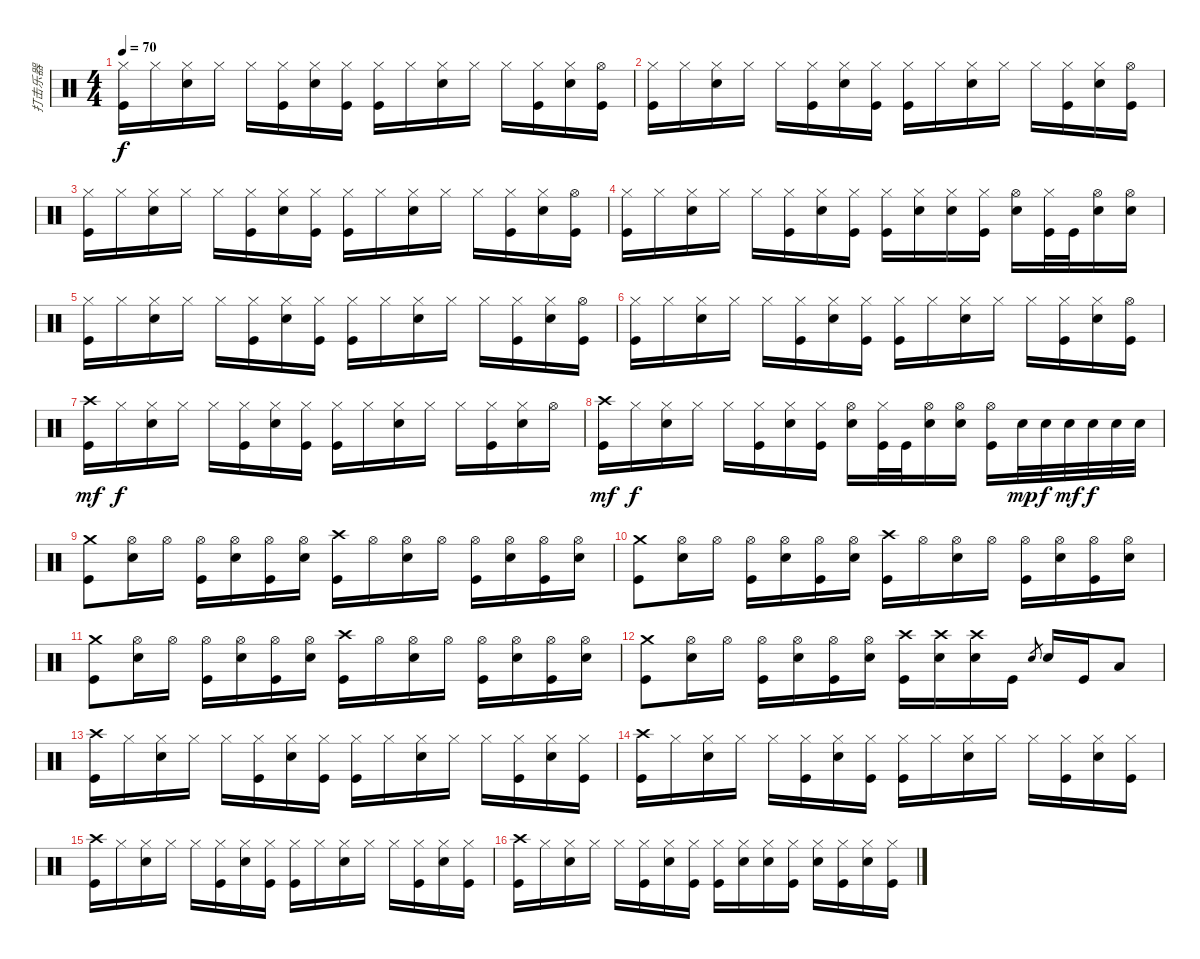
\track ("打击乐器" "打击乐器") {instrument percussion}
\staff {score}
\articulation defaults
\ts (4 4)
\tempo 70
\clef neutral
\ks c
("Hi-Hat (closed)" "Kick (hit)").16{dy f} "Hi-Hat (closed)".16 ("Hi-Hat (closed)" "Electric Snare (hit)").16 "Hi-Hat (closed)".16 "Hi-Hat (closed)".16 ("Hi-Hat (closed)" "Kick (hit)").16 ("Hi-Hat (closed)" "Electric Snare (hit)").16 ("Hi-Hat (closed)" "Kick (hit)").16 ("Hi-Hat (closed)" "Kick (hit)").16 "Hi-Hat (closed)".16 ("Hi-Hat (closed)" "Electric Snare (hit)").16 "Hi-Hat (closed)".16 "Hi-Hat (closed)".16 ("Hi-Hat (closed)" "Kick (hit)").16 ("Hi-Hat (closed)" "Electric Snare (hit)").16 ("Hi-Hat (open)" "Kick (hit)").16 |
("Hi-Hat (closed)" "Kick (hit)").16 "Hi-Hat (closed)".16 ("Hi-Hat (closed)" "Electric Snare (hit)").16 "Hi-Hat (closed)".16 "Hi-Hat (closed)".16 ("Hi-Hat (closed)" "Kick (hit)").16 ("Hi-Hat (closed)" "Electric Snare (hit)").16 ("Hi-Hat (closed)" "Kick (hit)").16 ("Hi-Hat (closed)" "Kick (hit)").16 "Hi-Hat (closed)".16 ("Hi-Hat (closed)" "Electric Snare (hit)").16 "Hi-Hat (closed)".16 "Hi-Hat (closed)".16 ("Hi-Hat (closed)" "Kick (hit)").16 ("Hi-Hat (closed)" "Electric Snare (hit)").16 ("Hi-Hat (open)" "Kick (hit)").16 |
("Hi-Hat (closed)" "Kick (hit)").16 "Hi-Hat (closed)".16 ("Hi-Hat (closed)" "Electric Snare (hit)").16 "Hi-Hat (closed)".16 "Hi-Hat (closed)".16 ("Hi-Hat (closed)" "Kick (hit)").16 ("Hi-Hat (closed)" "Electric Snare (hit)").16 ("Hi-Hat (closed)" "Kick (hit)").16 ("Hi-Hat (closed)" "Kick (hit)").16 "Hi-Hat (closed)".16 ("Hi-Hat (closed)" "Electric Snare (hit)").16 "Hi-Hat (closed)".16 "Hi-Hat (closed)".16 ("Hi-Hat (closed)" "Kick (hit)").16 ("Hi-Hat (closed)" "Electric Snare (hit)").16 ("Hi-Hat (open)" "Kick (hit)").16 |
("Hi-Hat (closed)" "Kick (hit)").16 "Hi-Hat (closed)".16 ("Hi-Hat (closed)" "Electric Snare (hit)").16 "Hi-Hat (closed)".16 "Hi-Hat (closed)".16 ("Hi-Hat (closed)" "Kick (hit)").16 ("Hi-Hat (closed)" "Electric Snare (hit)").16 ("Hi-Hat (closed)" "Kick (hit)").16 ("Hi-Hat (closed)" "Kick (hit)").16 ("Hi-Hat (closed)" "Electric Snare (hit)").16 ("Hi-Hat (closed)" "Electric Snare (hit)").16 ("Hi-Hat (closed)" "Kick (hit)").16 ("Hi-Hat (open)" "Electric Snare (hit)").16 ("Hi-Hat (closed)" "Kick (hit)").32 "Kick (hit)".32 ("Hi-Hat (open)" "Electric Snare (hit)").16 ("Hi-Hat (open)" "Electric Snare (hit)").16 |
("Hi-Hat (closed)" "Kick (hit)").16 "Hi-Hat (closed)".16 ("Hi-Hat (closed)" "Electric Snare (hit)").16 "Hi-Hat (closed)".16 "Hi-Hat (closed)".16 ("Hi-Hat (closed)" "Kick (hit)").16 ("Hi-Hat (closed)" "Electric Snare (hit)").16 ("Hi-Hat (closed)" "Kick (hit)").16 ("Hi-Hat (closed)" "Kick (hit)").16 "Hi-Hat (closed)".16 ("Hi-Hat (closed)" "Electric Snare (hit)").16 "Hi-Hat (closed)".16 "Hi-Hat (closed)".16 ("Hi-Hat (closed)" "Kick (hit)").16 ("Hi-Hat (closed)" "Electric Snare (hit)").16 ("Hi-Hat (open)" "Kick (hit)").16 |
("Hi-Hat (closed)" "Kick (hit)").16 "Hi-Hat (closed)".16 ("Hi-Hat (closed)" "Electric Snare (hit)").16 "Hi-Hat (closed)".16 "Hi-Hat (closed)".16 ("Hi-Hat (closed)" "Kick (hit)").16 ("Hi-Hat (closed)" "Electric Snare (hit)").16 ("Hi-Hat (closed)" "Kick (hit)").16 ("Hi-Hat (closed)" "Kick (hit)").16 "Hi-Hat (closed)".16 ("Hi-Hat (closed)" "Electric Snare (hit)").16 "Hi-Hat (closed)".16 "Hi-Hat (closed)".16 ("Hi-Hat (closed)" "Kick (hit)").16 ("Hi-Hat (closed)" "Electric Snare (hit)").16 ("Hi-Hat (open)" "Kick (hit)").16 |
("Crash high (hit)" "Kick (hit)").16{dy mf} "Hi-Hat (closed)".16{dy f} ("Hi-Hat (closed)" "Electric Snare (hit)").16 "Hi-Hat (closed)".16 "Hi-Hat (closed)".16 ("Hi-Hat (closed)" "Kick (hit)").16 ("Hi-Hat (closed)" "Electric Snare (hit)").16 ("Hi-Hat (closed)" "Kick (hit)").16 ("Hi-Hat (closed)" "Kick (hit)").16 "Hi-Hat (closed)".16 ("Hi-Hat (closed)" "Electric Snare (hit)").16 "Hi-Hat (closed)".16 "Hi-Hat (closed)".16 ("Hi-Hat (closed)" "Kick (hit)").16 ("Hi-Hat (closed)" "Electric Snare (hit)").16 "Hi-Hat (open)".16 |
("Crash high (hit)" "Kick (hit)").16{dy mf} "Hi-Hat (closed)".16{dy f} ("Hi-Hat (closed)" "Electric Snare (hit)").16 "Hi-Hat (closed)".16 "Hi-Hat (closed)".16 ("Hi-Hat (closed)" "Kick (hit)").16 ("Hi-Hat (closed)" "Electric Snare (hit)").16 ("Hi-Hat (closed)" "Kick (hit)").16 ("Hi-Hat (open)" "Electric Snare (hit)").16 ("Hi-Hat (closed)" "Kick (hit)").32 "Kick (hit)".32 ("Hi-Hat (open)" "Electric Snare (hit)").16 ("Hi-Hat (open)" "Electric Snare (hit)").16 ("Hi-Hat (open)" "Kick (hit)").16 "Electric Snare (hit)".32{dy mp} "Electric Snare (hit)".32{dy f} "Electric Snare (hit)".32{dy mf} "Electric Snare (hit)".32{dy f} "Electric Snare (hit)".32 "Electric Snare (hit)".32 |
("Crash medium (hit)" "Kick (hit)").8 ("Hi-Hat (open)" "Electric Snare (hit)").16 "Hi-Hat (open)".16 ("Hi-Hat (open)" "Kick (hit)").16 ("Hi-Hat (open)" "Electric Snare (hit)").16 ("Hi-Hat (open)" "Kick (hit)").16 ("Hi-Hat (open)" "Electric Snare (hit)").16 ("Crash high (hit)" "Kick (hit)").16 "Hi-Hat (open)".16 ("Hi-Hat (open)" "Electric Snare (hit)").16 "Hi-Hat (open)".16 ("Hi-Hat (open)" "Kick (hit)").16 ("Hi-Hat (open)" "Electric Snare (hit)").16 ("Hi-Hat (open)" "Kick (hit)").16 ("Hi-Hat (open)" "Electric Snare (hit)").16 |
("Crash medium (hit)" "Kick (hit)").8 ("Hi-Hat (open)" "Electric Snare (hit)").16 "Hi-Hat (open)".16 ("Hi-Hat (open)" "Kick (hit)").16 ("Hi-Hat (open)" "Electric Snare (hit)").16 ("Hi-Hat (open)" "Kick (hit)").16 ("Hi-Hat (open)" "Electric Snare (hit)").16 ("Crash high (hit)" "Kick (hit)").16 "Hi-Hat (open)".16 ("Hi-Hat (open)" "Electric Snare (hit)").16 "Hi-Hat (open)".16 ("Hi-Hat (open)" "Kick (hit)").16 ("Hi-Hat (open)" "Electric Snare (hit)").16 ("Hi-Hat (open)" "Kick (hit)").16 ("Hi-Hat (open)" "Electric Snare (hit)").16 |
("Crash medium (hit)" "Kick (hit)").8 ("Hi-Hat (open)" "Electric Snare (hit)").16 "Hi-Hat (open)".16 ("Hi-Hat (open)" "Kick (hit)").16 ("Hi-Hat (open)" "Electric Snare (hit)").16 ("Hi-Hat (open)" "Kick (hit)").16 ("Hi-Hat (open)" "Electric Snare (hit)").16 ("Crash high (hit)" "Kick (hit)").16 "Hi-Hat (open)".16 ("Hi-Hat (open)" "Electric Snare (hit)").16 "Hi-Hat (open)".16 ("Hi-Hat (open)" "Kick (hit)").16 ("Hi-Hat (open)" "Electric Snare (hit)").16 ("Hi-Hat (open)" "Kick (hit)").16 ("Hi-Hat (open)" "Electric Snare (hit)").16 |
("Crash medium (hit)" "Kick (hit)").8 ("Hi-Hat (open)" "Electric Snare (hit)").16 "Hi-Hat (open)".16 ("Hi-Hat (open)" "Kick (hit)").16 ("Hi-Hat (open)" "Electric Snare (hit)").16 ("Hi-Hat (open)" "Kick (hit)").16 ("Hi-Hat (open)" "Electric Snare (hit)").16 ("Crash high (hit)" "Kick (hit)").16 ("Crash high (hit)" "Electric Snare (hit)").16 ("Crash high (hit)" "Electric Snare (hit)").16 "Kick (hit)".16 "Electric Snare (hit)".8{gr} "Electric Snare (hit)".16 "Kick (hit)".16 "Low Tom (hit)".8 |
("Crash high (hit)" "Kick (hit)").16 "Hi-Hat (closed)".16 ("Hi-Hat (closed)" "Electric Snare (hit)").16 "Hi-Hat (closed)".16 "Hi-Hat (closed)".16 ("Hi-Hat (closed)" "Kick (hit)").16 ("Hi-Hat (closed)" "Electric Snare (hit)").16 ("Hi-Hat (closed)" "Kick (hit)").16 ("Hi-Hat (closed)" "Kick (hit)").16 "Hi-Hat (closed)".16 ("Hi-Hat (closed)" "Electric Snare (hit)").16 "Hi-Hat (closed)".16 "Hi-Hat (closed)".16 ("Hi-Hat (closed)" "Kick (hit)").16 ("Hi-Hat (closed)" "Electric Snare (hit)").16 ("Hi-Hat (closed)" "Kick (hit)").16 |
("Crash high (hit)" "Kick (hit)").16 "Hi-Hat (closed)".16 ("Hi-Hat (closed)" "Electric Snare (hit)").16 "Hi-Hat (closed)".16 "Hi-Hat (closed)".16 ("Hi-Hat (closed)" "Kick (hit)").16 ("Hi-Hat (closed)" "Electric Snare (hit)").16 ("Hi-Hat (closed)" "Kick (hit)").16 ("Hi-Hat (closed)" "Kick (hit)").16 "Hi-Hat (closed)".16 ("Hi-Hat (closed)" "Electric Snare (hit)").16 "Hi-Hat (closed)".16 "Hi-Hat (closed)".16 ("Hi-Hat (closed)" "Kick (hit)").16 ("Hi-Hat (closed)" "Electric Snare (hit)").16 ("Hi-Hat (closed)" "Kick (hit)").16 |
("Crash high (hit)" "Kick (hit)").16 "Hi-Hat (closed)".16 ("Hi-Hat (closed)" "Electric Snare (hit)").16 "Hi-Hat (closed)".16 "Hi-Hat (closed)".16 ("Hi-Hat (closed)" "Kick (hit)").16 ("Hi-Hat (closed)" "Electric Snare (hit)").16 ("Hi-Hat (closed)" "Kick (hit)").16 ("Hi-Hat (closed)" "Kick (hit)").16 "Hi-Hat (closed)".16 ("Hi-Hat (closed)" "Electric Snare (hit)").16 "Hi-Hat (closed)".16 "Hi-Hat (closed)".16 ("Hi-Hat (closed)" "Kick (hit)").16 ("Hi-Hat (closed)" "Electric Snare (hit)").16 ("Hi-Hat (closed)" "Kick (hit)").16 |
("Crash high (hit)" "Kick (hit)").16 "Hi-Hat (closed)".16 ("Hi-Hat (closed)" "Electric Snare (hit)").16 "Hi-Hat (closed)".16 "Hi-Hat (closed)".16 ("Hi-Hat (closed)" "Kick (hit)").16 ("Hi-Hat (closed)" "Electric Snare (hit)").16 ("Hi-Hat (closed)" "Kick (hit)").16 ("Hi-Hat (closed)" "Kick (hit)").16 ("Hi-Hat (closed)" "Electric Snare (hit)").16 ("Hi-Hat (closed)" "Electric Snare (hit)").16 ("Hi-Hat (closed)" "Kick (hit)").16 ("Hi-Hat (closed)" "Electric Snare (hit)").16 ("Hi-Hat (closed)" "Kick (hit)").16 ("Hi-Hat (closed)" "Electric Snare (hit)").16 ("Hi-Hat (closed)" "Kick (hit)").16
